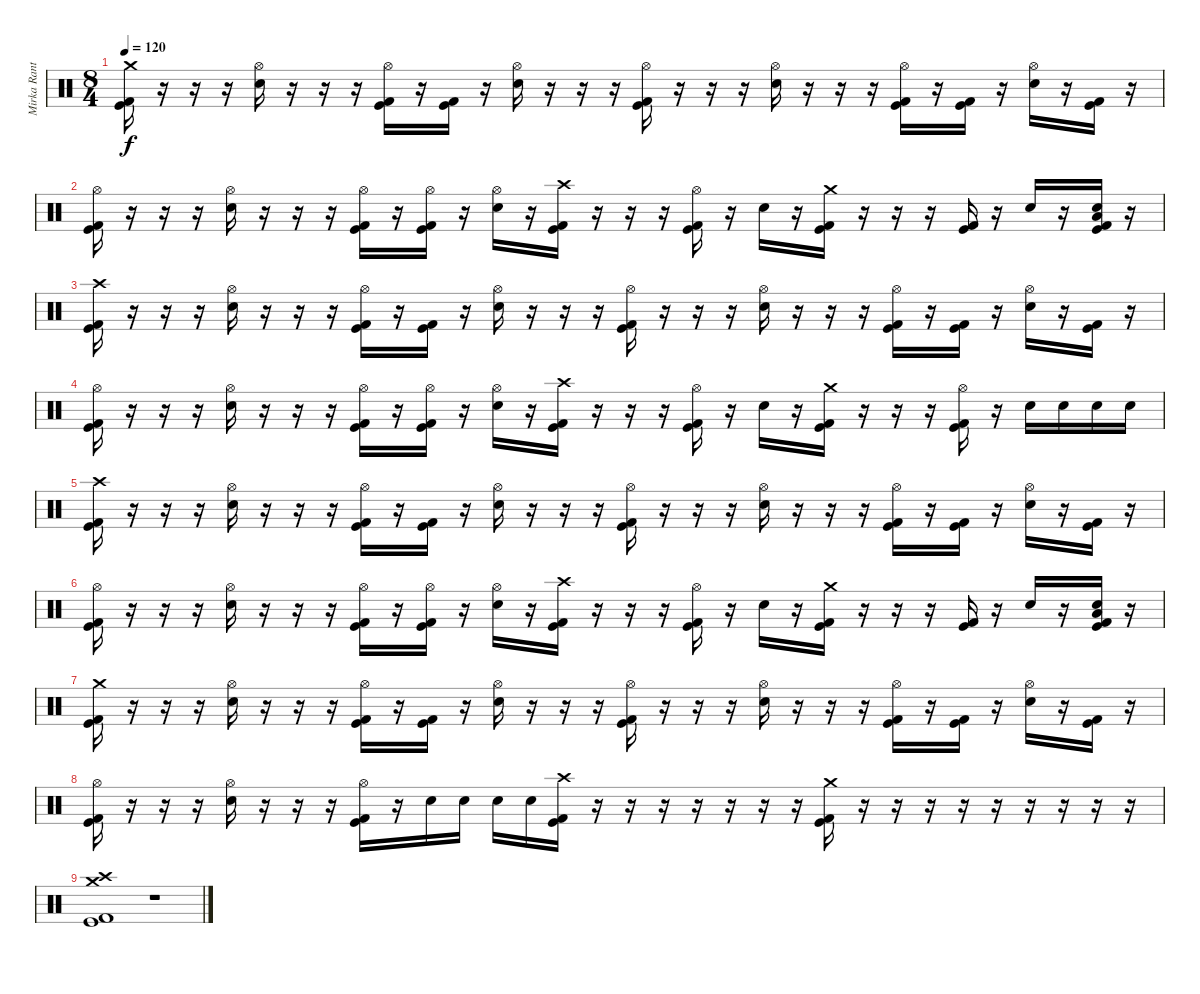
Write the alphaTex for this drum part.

\track ("Mirka Rantanen" "Mirka Rant") {instrument percussion}
\staff {score}
\articulation defaults
\ts (8 4)
\tempo 120
\clef neutral
\ks c
("Crash medium (hit)" "Kick (hit) 2" "Kick (hit)").16{dy f} r.16 r.16 r.16 ("Hi-Hat (open)" "Electric Snare (hit)").16 r.16 r.16 r.16 ("Hi-Hat (open)" "Kick (hit) 2" "Kick (hit)").16 r.16 ("Kick (hit) 2" "Kick (hit)").16 r.16 ("Hi-Hat (open)" "Electric Snare (hit)").16 r.16 r.16 r.16 ("Hi-Hat (open)" "Kick (hit) 2" "Kick (hit)").16 r.16 r.16 r.16 ("Hi-Hat (open)" "Electric Snare (hit)").16 r.16 r.16 r.16 ("Hi-Hat (open)" "Kick (hit) 2" "Kick (hit)").16 r.16 ("Kick (hit) 2" "Kick (hit)").16 r.16 ("Hi-Hat (open)" "Electric Snare (hit)").16 r.16 ("Kick (hit) 2" "Kick (hit)").16 r.16 |
("Hi-Hat (open)" "Kick (hit) 2" "Kick (hit)").16 r.16 r.16 r.16 ("Hi-Hat (open)" "Electric Snare (hit)").16 r.16 r.16 r.16 ("Hi-Hat (open)" "Kick (hit) 2" "Kick (hit)").16 r.16 ("Hi-Hat (open)" "Kick (hit) 2" "Kick (hit)").16 r.16 ("Hi-Hat (open)" "Electric Snare (hit)").16 r.16 ("Crash high (hit)" "Kick (hit) 2" "Kick (hit)").16 r.16 r.16 r.16 ("Hi-Hat (open)" "Kick (hit) 2" "Kick (hit)").16 r.16 "Electric Snare (hit)".16 r.16 ("Crash medium (hit)" "Kick (hit) 2" "Kick (hit)").16 r.16 r.16 r.16 ("Kick (hit) 2" "Kick (hit)").16 r.16 "Electric Snare (hit)".16 r.16 ("Kick (hit) 2" "Kick (hit)" "Electric Snare (hit)" "Low Floor Tom (hit)").16 r.16 |
("Crash high (hit)" "Kick (hit) 2" "Kick (hit)").16 r.16 r.16 r.16 ("Hi-Hat (open)" "Electric Snare (hit)").16 r.16 r.16 r.16 ("Hi-Hat (open)" "Kick (hit) 2" "Kick (hit)").16 r.16 ("Kick (hit) 2" "Kick (hit)").16 r.16 ("Hi-Hat (open)" "Electric Snare (hit)").16 r.16 r.16 r.16 ("Hi-Hat (open)" "Kick (hit) 2" "Kick (hit)").16 r.16 r.16 r.16 ("Hi-Hat (open)" "Electric Snare (hit)").16 r.16 r.16 r.16 ("Hi-Hat (open)" "Kick (hit) 2" "Kick (hit)").16 r.16 ("Kick (hit) 2" "Kick (hit)").16 r.16 ("Hi-Hat (open)" "Electric Snare (hit)").16 r.16 ("Kick (hit) 2" "Kick (hit)").16 r.16 |
("Hi-Hat (open)" "Kick (hit) 2" "Kick (hit)").16 r.16 r.16 r.16 ("Hi-Hat (open)" "Electric Snare (hit)").16 r.16 r.16 r.16 ("Hi-Hat (open)" "Kick (hit) 2" "Kick (hit)").16 r.16 ("Hi-Hat (open)" "Kick (hit) 2" "Kick (hit)").16 r.16 ("Hi-Hat (open)" "Electric Snare (hit)").16 r.16 ("Crash high (hit)" "Kick (hit) 2" "Kick (hit)").16 r.16 r.16 r.16 ("Hi-Hat (open)" "Kick (hit) 2" "Kick (hit)").16 r.16 "Electric Snare (hit)".16 r.16 ("Crash medium (hit)" "Kick (hit) 2" "Kick (hit)").16 r.16 r.16 r.16 ("Hi-Hat (open)" "Kick (hit) 2" "Kick (hit)").16 r.16 "Electric Snare (hit)".16 "Electric Snare (hit)".16 "Electric Snare (hit)".16 "Electric Snare (hit)".16 |
("Crash high (hit)" "Kick (hit) 2" "Kick (hit)").16 r.16 r.16 r.16 ("Hi-Hat (open)" "Electric Snare (hit)").16 r.16 r.16 r.16 ("Hi-Hat (open)" "Kick (hit) 2" "Kick (hit)").16 r.16 ("Kick (hit) 2" "Kick (hit)").16 r.16 ("Hi-Hat (open)" "Electric Snare (hit)").16 r.16 r.16 r.16 ("Hi-Hat (open)" "Kick (hit) 2" "Kick (hit)").16 r.16 r.16 r.16 ("Hi-Hat (open)" "Electric Snare (hit)").16 r.16 r.16 r.16 ("Hi-Hat (open)" "Kick (hit) 2" "Kick (hit)").16 r.16 ("Kick (hit) 2" "Kick (hit)").16 r.16 ("Hi-Hat (open)" "Electric Snare (hit)").16 r.16 ("Kick (hit) 2" "Kick (hit)").16 r.16 |
("Hi-Hat (open)" "Kick (hit) 2" "Kick (hit)").16 r.16 r.16 r.16 ("Hi-Hat (open)" "Electric Snare (hit)").16 r.16 r.16 r.16 ("Hi-Hat (open)" "Kick (hit) 2" "Kick (hit)").16 r.16 ("Hi-Hat (open)" "Kick (hit) 2" "Kick (hit)").16 r.16 ("Hi-Hat (open)" "Electric Snare (hit)").16 r.16 ("Crash high (hit)" "Kick (hit) 2" "Kick (hit)").16 r.16 r.16 r.16 ("Hi-Hat (open)" "Kick (hit) 2" "Kick (hit)").16 r.16 "Electric Snare (hit)".16 r.16 ("Crash medium (hit)" "Kick (hit) 2" "Kick (hit)").16 r.16 r.16 r.16 ("Kick (hit) 2" "Kick (hit)").16 r.16 "Electric Snare (hit)".16 r.16 ("Kick (hit) 2" "Kick (hit)" "Electric Snare (hit)" "Low Floor Tom (hit)").16 r.16 |
("Crash medium (hit)" "Kick (hit) 2" "Kick (hit)").16 r.16 r.16 r.16 ("Hi-Hat (open)" "Electric Snare (hit)").16 r.16 r.16 r.16 ("Hi-Hat (open)" "Kick (hit) 2" "Kick (hit)").16 r.16 ("Kick (hit) 2" "Kick (hit)").16 r.16 ("Hi-Hat (open)" "Electric Snare (hit)").16 r.16 r.16 r.16 ("Hi-Hat (open)" "Kick (hit) 2" "Kick (hit)").16 r.16 r.16 r.16 ("Hi-Hat (open)" "Electric Snare (hit)").16 r.16 r.16 r.16 ("Hi-Hat (open)" "Kick (hit) 2" "Kick (hit)").16 r.16 ("Kick (hit) 2" "Kick (hit)").16 r.16 ("Hi-Hat (open)" "Electric Snare (hit)").16 r.16 ("Kick (hit) 2" "Kick (hit)").16 r.16 |
("Hi-Hat (open)" "Kick (hit) 2" "Kick (hit)").16 r.16 r.16 r.16 ("Hi-Hat (open)" "Electric Snare (hit)").16 r.16 r.16 r.16 ("Hi-Hat (open)" "Kick (hit) 2" "Kick (hit)").16 r.16 "Electric Snare (hit)".16 "Electric Snare (hit)".16 "Electric Snare (hit)".16 "Electric Snare (hit)".16 ("Crash high (hit)" "Kick (hit) 2" "Kick (hit)").16 r.16 r.16 r.16 r.16 r.16 r.16 r.16 ("Crash medium (hit)" "Kick (hit) 2" "Kick (hit)").16 r.16 r.16 r.16 r.16 r.16 r.16 r.16 r.16 r.16 |
("Crash medium (hit)" "Crash high (hit)" "Kick (hit) 2" "Kick (hit)").1 r.1
